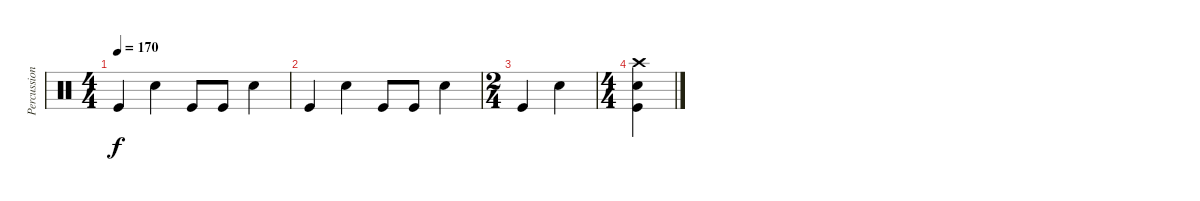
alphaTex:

\track ("Percussion" "Percussion") {instrument percussion}
\staff {score}
\articulation defaults
\ts (4 4)
\tempo 170
\clef neutral
\ks c "Kick (hit)".4{dy f} "Snare (hit) 2".4 "Kick (hit)".8 "Kick (hit)".8 "Snare (hit) 2".4
|
"Kick (hit)".4 "Snare (hit) 2".4 "Kick (hit)".8 "Kick (hit)".8 "Snare (hit) 2".4 |
\ts (2 4)
"Kick (hit)".4 "Snare (hit) 2".4 |
\ts (4 4)
("Crash high (hit)" "Snare (hit) 2" "Kick (hit)").4
